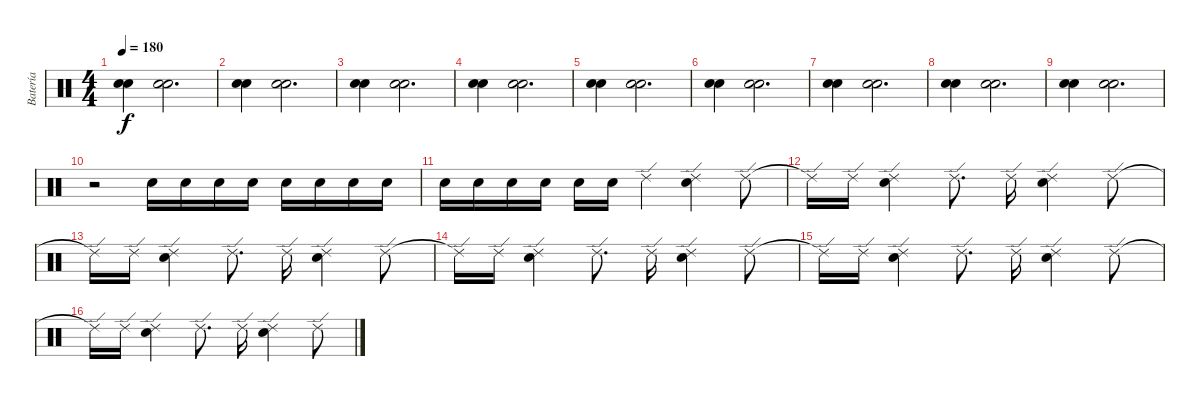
\track ("Batería" "Batería") {instrument percussion}
\staff {score}
\articulation defaults
\ts (4 4)
\tempo 180
\clef neutral
\ks c
("Snare (hit) 2" "Snare (hit) 2").4{dy f} ("Snare (hit) 2" "Snare (hit) 2").2{d} |
("Snare (hit) 2" "Snare (hit) 2").4 ("Snare (hit) 2" "Snare (hit) 2").2{d} |
("Snare (hit) 2" "Snare (hit) 2").4 ("Snare (hit) 2" "Snare (hit) 2").2{d} |
("Snare (hit) 2" "Snare (hit) 2").4 ("Snare (hit) 2" "Snare (hit) 2").2{d} |
("Snare (hit) 2" "Snare (hit) 2").4 ("Snare (hit) 2" "Snare (hit) 2").2{d} |
("Snare (hit) 2" "Snare (hit) 2").4 ("Snare (hit) 2" "Snare (hit) 2").2{d} |
("Snare (hit) 2" "Snare (hit) 2").4 ("Snare (hit) 2" "Snare (hit) 2").2{d} |
("Snare (hit) 2" "Snare (hit) 2").4 ("Snare (hit) 2" "Snare (hit) 2").2{d} |
("Snare (hit) 2" "Snare (hit) 2").4 ("Snare (hit) 2" "Snare (hit) 2").2{d} |
r.2 "Snare (hit) 2".16 "Snare (hit) 2".16 "Snare (hit) 2".16 "Snare (hit) 2".16 "Snare (hit) 2".16 "Snare (hit) 2".16 "Snare (hit) 2".16 "Snare (hit) 2".16 |
"Snare (hit) 2".16 "Snare (hit) 2".16 "Snare (hit) 2".16 "Snare (hit) 2".16 "Snare (hit) 2".16 "Snare (hit) 2".16 "Ride (edge) 2".4 ("Ride (edge) 2" "Snare (hit) 2").4 "Ride (edge) 2".8 |
"Ride (edge) 2"{t}.16 "Ride (edge) 2".16 ("Ride (edge) 2" "Snare (hit) 2").4 "Ride (edge) 2".8{d} "Ride (edge) 2".16 ("Ride (edge) 2" "Snare (hit) 2").4 "Ride (edge) 2".8 |
"Ride (edge) 2"{t}.16 "Ride (edge) 2".16 ("Ride (edge) 2" "Snare (hit) 2").4 "Ride (edge) 2".8{d} "Ride (edge) 2".16 ("Ride (edge) 2" "Snare (hit) 2").4 "Ride (edge) 2".8 |
"Ride (edge) 2"{t}.16 "Ride (edge) 2".16 ("Ride (edge) 2" "Snare (hit) 2").4 "Ride (edge) 2".8{d} "Ride (edge) 2".16 ("Ride (edge) 2" "Snare (hit) 2").4 "Ride (edge) 2".8 |
"Ride (edge) 2"{t}.16 "Ride (edge) 2".16 ("Ride (edge) 2" "Snare (hit) 2").4 "Ride (edge) 2".8{d} "Ride (edge) 2".16 ("Ride (edge) 2" "Snare (hit) 2").4 "Ride (edge) 2".8 |
"Ride (edge) 2"{t}.16 "Ride (edge) 2".16 ("Ride (edge) 2" "Snare (hit) 2").4 "Ride (edge) 2".8{d} "Ride (edge) 2".16 ("Ride (edge) 2" "Snare (hit) 2").4 "Ride (edge) 2".8
